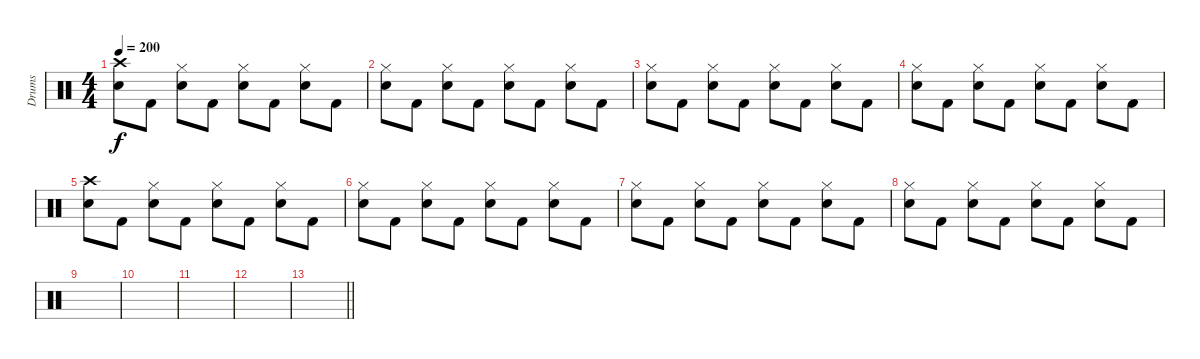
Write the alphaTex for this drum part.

\track ("Drums" "Drums") {instrument percussion}
\staff {score}
\articulation defaults
\ts (4 4)
\tempo 200
\clef neutral
\ks c
("Crash high (hit)" "Snare (hit) 2").8{dy f} "Kick (hit) 2".8 ("Hi-Hat (closed)" "Snare (hit) 2").8 "Kick (hit) 2".8 ("Hi-Hat (closed)" "Snare (hit) 2").8 "Kick (hit) 2".8 ("Hi-Hat (closed)" "Snare (hit) 2").8 "Kick (hit) 2".8 |
("Hi-Hat (closed)" "Snare (hit) 2").8 "Kick (hit) 2".8 ("Hi-Hat (closed)" "Snare (hit) 2").8 "Kick (hit) 2".8 ("Hi-Hat (closed)" "Snare (hit) 2").8 "Kick (hit) 2".8 ("Hi-Hat (closed)" "Snare (hit) 2").8 "Kick (hit) 2".8 |
("Hi-Hat (closed)" "Snare (hit) 2").8 "Kick (hit) 2".8 ("Hi-Hat (closed)" "Snare (hit) 2").8 "Kick (hit) 2".8 ("Hi-Hat (closed)" "Snare (hit) 2").8 "Kick (hit) 2".8 ("Hi-Hat (closed)" "Snare (hit) 2").8 "Kick (hit) 2".8 |
("Hi-Hat (closed)" "Snare (hit) 2").8 "Kick (hit) 2".8 ("Hi-Hat (closed)" "Snare (hit) 2").8 "Kick (hit) 2".8 ("Hi-Hat (closed)" "Snare (hit) 2").8 "Kick (hit) 2".8 ("Hi-Hat (closed)" "Snare (hit) 2").8 "Kick (hit) 2".8 |
("Crash high (hit)" "Snare (hit) 2").8 "Kick (hit) 2".8 ("Hi-Hat (closed)" "Snare (hit) 2").8 "Kick (hit) 2".8 ("Hi-Hat (closed)" "Snare (hit) 2").8 "Kick (hit) 2".8 ("Hi-Hat (closed)" "Snare (hit) 2").8 "Kick (hit) 2".8 |
("Hi-Hat (closed)" "Snare (hit) 2").8 "Kick (hit) 2".8 ("Hi-Hat (closed)" "Snare (hit) 2").8 "Kick (hit) 2".8 ("Hi-Hat (closed)" "Snare (hit) 2").8 "Kick (hit) 2".8 ("Hi-Hat (closed)" "Snare (hit) 2").8 "Kick (hit) 2".8 |
("Hi-Hat (closed)" "Snare (hit) 2").8 "Kick (hit) 2".8 ("Hi-Hat (closed)" "Snare (hit) 2").8 "Kick (hit) 2".8 ("Hi-Hat (closed)" "Snare (hit) 2").8 "Kick (hit) 2".8 ("Hi-Hat (closed)" "Snare (hit) 2").8 "Kick (hit) 2".8 |
("Hi-Hat (closed)" "Snare (hit) 2").8 "Kick (hit) 2".8 ("Hi-Hat (closed)" "Snare (hit) 2").8 "Kick (hit) 2".8 ("Hi-Hat (closed)" "Snare (hit) 2").8 "Kick (hit) 2".8 ("Hi-Hat (closed)" "Snare (hit) 2").8 "Kick (hit) 2".8 |
|
|
|
|
\barLineRight lightlight
